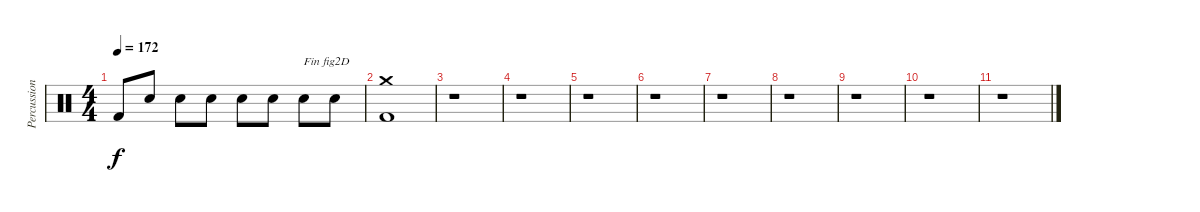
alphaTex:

\track ("Percussions" "Percussion") {instrument percussion}
\staff {score}
\articulation defaults
\ts (4 4)
\tempo 172
\clef neutral
\ks c "Kick (hit) 2".8{dy f} "Electric Snare (hit)".8 "Electric Snare (hit)".8 "Electric Snare (hit)".8 "Electric Snare (hit)".8 "Electric Snare (hit)".8 "Electric Snare (hit)".8{txt "Fin fig2D"} "Electric Snare (hit)".8
|
("Kick (hit) 2" "Crash medium (hit)").1 |
r.1 |
r.1 |
r.1 |
r.1 |
r.1 |
r.1 |
r.1 |
r.1 |
r.1
